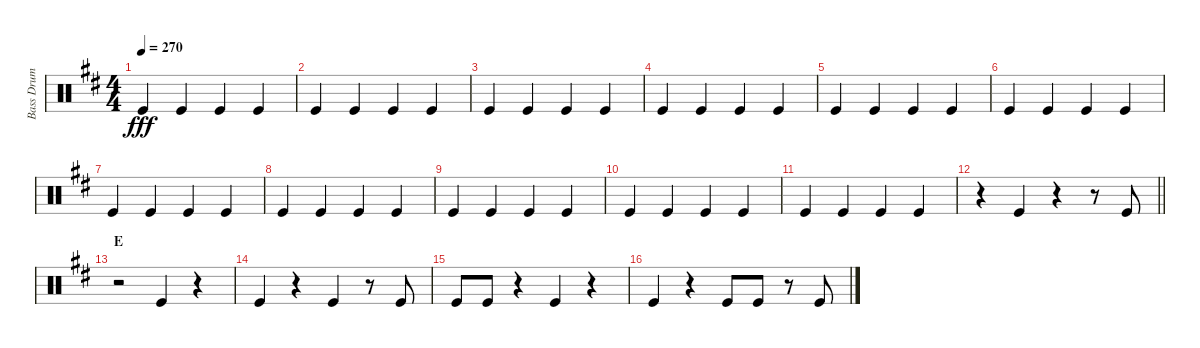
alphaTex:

\track ("Bass Drum" "Bass Drum") {instrument percussion}
\staff {score}
\articulation defaults
\ts (4 4)
\tempo 270
\clef neutral
\ks d "Kick (hit)".4{dy fff} "Kick (hit)".4 "Kick (hit)".4 "Kick (hit)".4
|
"Kick (hit)".4 "Kick (hit)".4 "Kick (hit)".4 "Kick (hit)".4 |
"Kick (hit)".4 "Kick (hit)".4 "Kick (hit)".4 "Kick (hit)".4 |
"Kick (hit)".4 "Kick (hit)".4 "Kick (hit)".4 "Kick (hit)".4 |
"Kick (hit)".4 "Kick (hit)".4 "Kick (hit)".4 "Kick (hit)".4 |
"Kick (hit)".4 "Kick (hit)".4 "Kick (hit)".4 "Kick (hit)".4 |
"Kick (hit)".4 "Kick (hit)".4 "Kick (hit)".4 "Kick (hit)".4 |
"Kick (hit)".4 "Kick (hit)".4 "Kick (hit)".4 "Kick (hit)".4 |
"Kick (hit)".4 "Kick (hit)".4 "Kick (hit)".4 "Kick (hit)".4 |
"Kick (hit)".4 "Kick (hit)".4 "Kick (hit)".4 "Kick (hit)".4 |
"Kick (hit)".4 "Kick (hit)".4 "Kick (hit)".4 "Kick (hit)".4 |
\barLineRight lightlight
r.4 "Kick (hit)".4 r.4 r.8 "Kick (hit)".8 |
\section ("" "E")
r.2 "Kick (hit)".4 r.4 |
"Kick (hit)".4 r.4 "Kick (hit)".4 r.8 "Kick (hit)".8 |
"Kick (hit)".8 "Kick (hit)".8 r.4 "Kick (hit)".4 r.4 |
"Kick (hit)".4 r.4 "Kick (hit)".8 "Kick (hit)".8 r.8 "Kick (hit)".8
